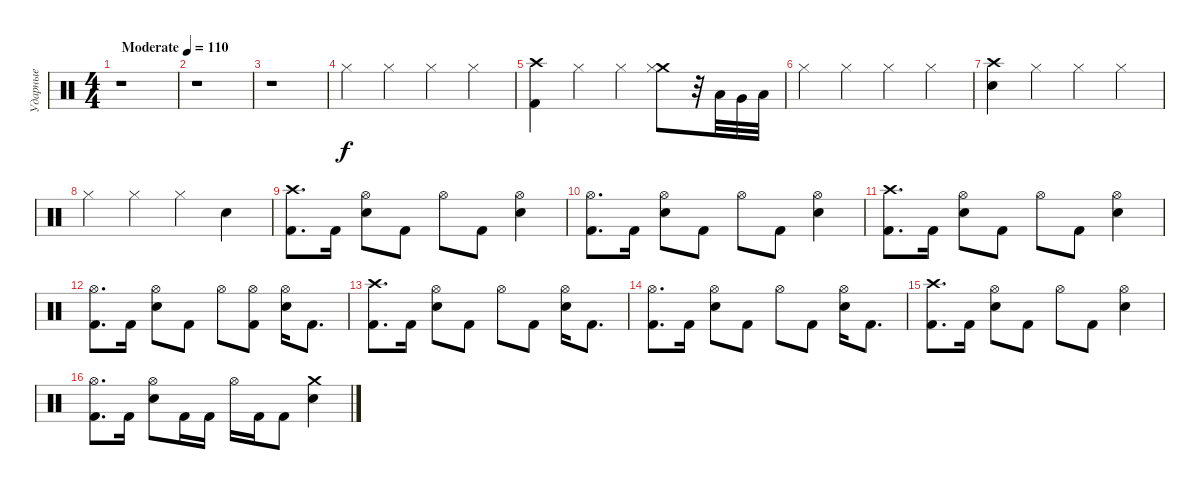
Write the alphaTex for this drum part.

\track ("Ударные" "Ударные") {instrument percussion}
\staff {score}
\articulation defaults
\ts (4 4)
\tempo (110 "Moderate")
\clef neutral
\ks c
r.1{dy f} |
r.1 |
r.1 |
"Hi-Hat (closed)".4 "Hi-Hat (closed)".4 "Hi-Hat (closed)".4 "Hi-Hat (closed)".4 |
("Crash high (hit)" "Kick (hit) 2").4 "Hi-Hat (closed)".4 "Hi-Hat (closed)".4 ("Crash medium (hit)" "Hi-Hat (closed)").8 r.32 "Low Tom (hit)".32 "Very Low Tom (hit)".32 "Low Floor Tom (hit)".32 |
"Hi-Hat (closed)".4 "Hi-Hat (closed)".4 "Hi-Hat (closed)".4 "Hi-Hat (closed)".4 |
("Crash high (hit)" "Electric Snare (hit)").4 "Hi-Hat (closed)".4 "Hi-Hat (closed)".4 "Hi-Hat (closed)".4 |
"Hi-Hat (closed)".4 "Hi-Hat (closed)".4 "Hi-Hat (closed)".4 "Electric Snare (hit)".4 |
("Crash high (hit)" "Kick (hit) 2").8{d} "Kick (hit) 2".16 ("Electric Snare (hit)" "Hi-Hat (open)").8 "Kick (hit) 2".8 "Hi-Hat (open)".8 "Kick (hit) 2".8 ("Electric Snare (hit)" "Hi-Hat (open)").4 |
("Kick (hit) 2" "Hi-Hat (open)").8{d} "Kick (hit) 2".16 ("Electric Snare (hit)" "Hi-Hat (open)").8 "Kick (hit) 2".8 "Hi-Hat (open)".8 "Kick (hit) 2".8 ("Electric Snare (hit)" "Hi-Hat (open)").4 |
("Crash high (hit)" "Kick (hit) 2").8{d} "Kick (hit) 2".16 ("Electric Snare (hit)" "Hi-Hat (open)").8 "Kick (hit) 2".8 "Hi-Hat (open)".8 "Kick (hit) 2".8 ("Electric Snare (hit)" "Hi-Hat (open)").4 |
("Kick (hit) 2" "Hi-Hat (open)").8{d} "Kick (hit) 2".16 ("Electric Snare (hit)" "Hi-Hat (open)").8 "Kick (hit) 2".8 "Hi-Hat (open)".8 ("Kick (hit) 2" "Hi-Hat (open)").8 ("Electric Snare (hit)" "Hi-Hat (open)").16 "Kick (hit) 2".8{d} |
("Crash high (hit)" "Kick (hit) 2").8{d} "Kick (hit) 2".16 ("Electric Snare (hit)" "Hi-Hat (open)").8 "Kick (hit) 2".8 "Hi-Hat (open)".8 "Kick (hit) 2".8 ("Electric Snare (hit)" "Hi-Hat (open)").16 "Kick (hit) 2".8{d} |
("Kick (hit) 2" "Hi-Hat (open)").8{d} "Kick (hit) 2".16 ("Electric Snare (hit)" "Hi-Hat (open)").8 "Kick (hit) 2".8 "Hi-Hat (open)".8 "Kick (hit) 2".8 ("Electric Snare (hit)" "Hi-Hat (open)").16 "Kick (hit) 2".8{d} |
("Crash high (hit)" "Kick (hit) 2").8{d} "Kick (hit) 2".16 ("Electric Snare (hit)" "Hi-Hat (open)").8 "Kick (hit) 2".8 "Hi-Hat (open)".8 "Kick (hit) 2".8 ("Electric Snare (hit)" "Hi-Hat (open)").4 |
("Kick (hit) 2" "Hi-Hat (open)").8{d} "Kick (hit) 2".16 ("Electric Snare (hit)" "Hi-Hat (open)").8 "Kick (hit) 2".16 "Kick (hit) 2".16 "Hi-Hat (open)".16 "Kick (hit) 2".16 "Kick (hit) 2".8 ("Crash medium (hit)" "Electric Snare (hit)").4
